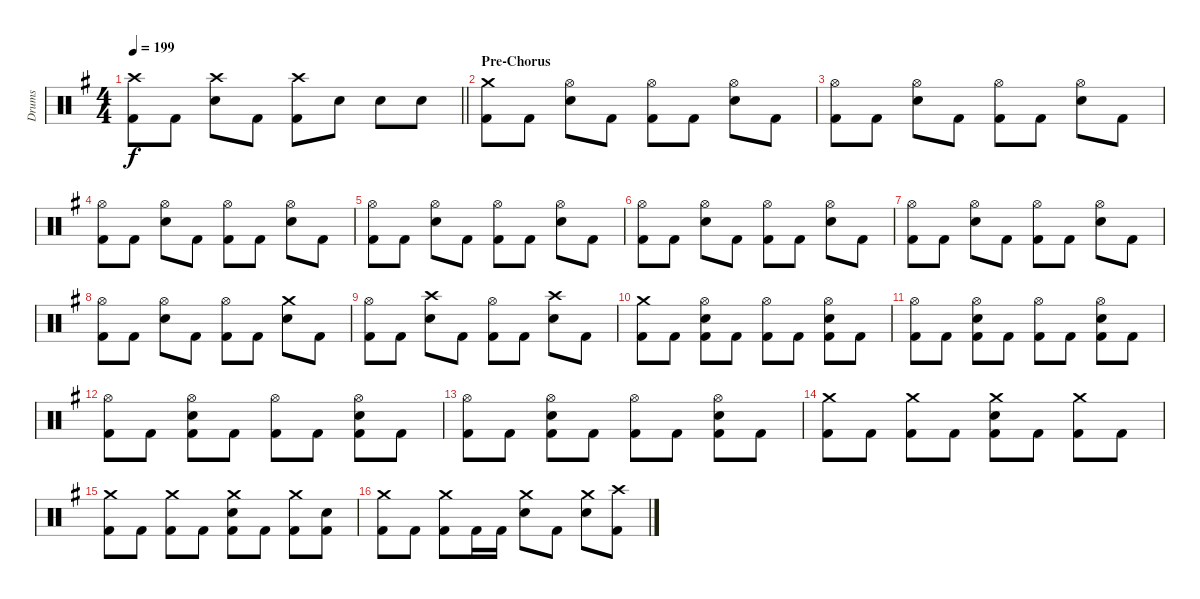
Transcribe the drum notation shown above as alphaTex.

\track ("Drums" "Drums") {instrument percussion}
\staff {score}
\articulation defaults
\ts (4 4)
\tempo 199
\clef neutral
\barLineRight lightlight
\ks eminor
("Crash high (hit)" "Kick (hit) 2").8{dy f} "Kick (hit) 2".8 ("Crash high (hit)" "Electric Snare (hit)").8 "Kick (hit) 2".8 ("Crash high (hit)" "Kick (hit) 2").8 "Electric Snare (hit)".8 "Electric Snare (hit)".8 "Electric Snare (hit)".8 |
\section ("" "Pre-Chorus")
("Crash medium (hit)" "Kick (hit) 2").8 "Kick (hit) 2".8 ("Hi-Hat (open)" "Electric Snare (hit)").8 "Kick (hit) 2".8 ("Hi-Hat (open)" "Kick (hit) 2").8 "Kick (hit) 2".8 ("Hi-Hat (open)" "Electric Snare (hit)").8 "Kick (hit) 2".8 |
("Hi-Hat (open)" "Kick (hit) 2").8 "Kick (hit) 2".8 ("Hi-Hat (open)" "Electric Snare (hit)").8 "Kick (hit) 2".8 ("Hi-Hat (open)" "Kick (hit) 2").8 "Kick (hit) 2".8 ("Hi-Hat (open)" "Electric Snare (hit)").8 "Kick (hit) 2".8 |
("Hi-Hat (open)" "Kick (hit) 2").8 "Kick (hit) 2".8 ("Hi-Hat (open)" "Electric Snare (hit)").8 "Kick (hit) 2".8 ("Hi-Hat (open)" "Kick (hit) 2").8 "Kick (hit) 2".8 ("Hi-Hat (open)" "Electric Snare (hit)").8 "Kick (hit) 2".8 |
("Hi-Hat (open)" "Kick (hit) 2").8 "Kick (hit) 2".8 ("Hi-Hat (open)" "Electric Snare (hit)").8 "Kick (hit) 2".8 ("Hi-Hat (open)" "Kick (hit) 2").8 "Kick (hit) 2".8 ("Hi-Hat (open)" "Electric Snare (hit)").8 "Kick (hit) 2".8 |
("Hi-Hat (open)" "Kick (hit) 2").8 "Kick (hit) 2".8 ("Hi-Hat (open)" "Electric Snare (hit)").8 "Kick (hit) 2".8 ("Hi-Hat (open)" "Kick (hit) 2").8 "Kick (hit) 2".8 ("Hi-Hat (open)" "Electric Snare (hit)").8 "Kick (hit) 2".8 |
("Hi-Hat (open)" "Kick (hit) 2").8 "Kick (hit) 2".8 ("Hi-Hat (open)" "Electric Snare (hit)").8 "Kick (hit) 2".8 ("Hi-Hat (open)" "Kick (hit) 2").8 "Kick (hit) 2".8 ("Hi-Hat (open)" "Electric Snare (hit)").8 "Kick (hit) 2".8 |
("Hi-Hat (open)" "Kick (hit) 2").8 "Kick (hit) 2".8 ("Hi-Hat (open)" "Electric Snare (hit)").8 "Kick (hit) 2".8 ("Hi-Hat (open)" "Kick (hit) 2").8 "Kick (hit) 2".8 ("Crash medium (hit)" "Electric Snare (hit)").8 "Kick (hit) 2".8 |
("Hi-Hat (open)" "Kick (hit) 2").8 "Kick (hit) 2".8 ("Crash high (hit)" "Electric Snare (hit)").8 "Kick (hit) 2".8 ("Hi-Hat (open)" "Kick (hit) 2").8 "Kick (hit) 2".8 ("Crash high (hit)" "Electric Snare (hit)").8 "Kick (hit) 2".8 |
("Crash medium (hit)" "Kick (hit) 2").8 "Kick (hit) 2".8 ("Hi-Hat (open)" "Electric Snare (hit)" "Kick (hit) 2").8 "Kick (hit) 2".8 ("Hi-Hat (open)" "Kick (hit) 2").8 "Kick (hit) 2".8 ("Hi-Hat (open)" "Electric Snare (hit)" "Kick (hit) 2").8 "Kick (hit) 2".8 |
("Hi-Hat (open)" "Kick (hit) 2").8 "Kick (hit) 2".8 ("Hi-Hat (open)" "Electric Snare (hit)" "Kick (hit) 2").8 "Kick (hit) 2".8 ("Hi-Hat (open)" "Kick (hit) 2").8 "Kick (hit) 2".8 ("Hi-Hat (open)" "Electric Snare (hit)" "Kick (hit) 2").8 "Kick (hit) 2".8 |
("Hi-Hat (open)" "Kick (hit) 2").8 "Kick (hit) 2".8 ("Hi-Hat (open)" "Electric Snare (hit)" "Kick (hit) 2").8 "Kick (hit) 2".8 ("Hi-Hat (open)" "Kick (hit) 2").8 "Kick (hit) 2".8 ("Hi-Hat (open)" "Electric Snare (hit)" "Kick (hit) 2").8 "Kick (hit) 2".8 |
("Hi-Hat (open)" "Kick (hit) 2").8 "Kick (hit) 2".8 ("Hi-Hat (open)" "Electric Snare (hit)" "Kick (hit) 2").8 "Kick (hit) 2".8 ("Hi-Hat (open)" "Kick (hit) 2").8 "Kick (hit) 2".8 ("Hi-Hat (open)" "Electric Snare (hit)" "Kick (hit) 2").8 "Kick (hit) 2".8 |
("Crash medium (hit)" "Kick (hit) 2").8 "Kick (hit) 2".8 ("Crash medium (hit)" "Kick (hit) 2").8 "Kick (hit) 2".8 ("Crash medium (hit)" "Electric Snare (hit)" "Kick (hit) 2").8 "Kick (hit) 2".8 ("Crash medium (hit)" "Kick (hit) 2").8 "Kick (hit) 2".8 |
("Crash medium (hit)" "Kick (hit) 2").8 "Kick (hit) 2".8 ("Crash medium (hit)" "Kick (hit) 2").8 "Kick (hit) 2".8 ("Crash medium (hit)" "Electric Snare (hit)" "Kick (hit) 2").8 "Kick (hit) 2".8 ("Crash medium (hit)" "Kick (hit) 2").8 ("Electric Snare (hit)" "Kick (hit) 2").8 |
("Crash medium (hit)" "Kick (hit) 2").8 "Kick (hit) 2".8 ("Crash medium (hit)" "Kick (hit) 2").8 "Kick (hit) 2".16 "Kick (hit) 2".16 ("Crash medium (hit)" "Electric Snare (hit)").8 "Kick (hit) 2".8 ("Crash medium (hit)" "Electric Snare (hit)").8 ("Crash high (hit)" "Kick (hit) 2").8
